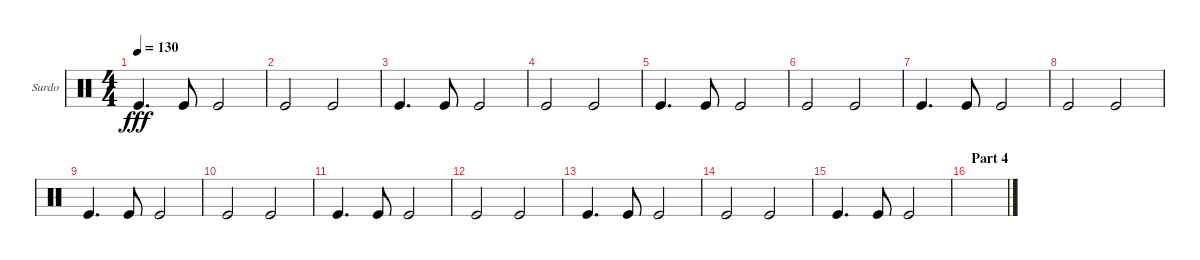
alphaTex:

\defaultSystemsLayout 4
\bracketExtendMode groupsimilarinstruments
\firstSystemTrackNameOrientation horizontal
\otherSystemsTrackNameOrientation horizontal
\track ("Surdo" "Surdo") {instrument percussion}
\staff {score}
\articulation defaults
\ts (4 4)
\tempo 130
\clef neutral
\scale
0.333333
\ks aminor "Kick (hit)".4{d dy fff} "Kick (hit)".8 "Kick (hit)".2
|
\scale
0.333333 "Kick (hit)".2 "Kick (hit)".2 |
\scale
0.333333 "Kick (hit)".4{d} "Kick (hit)".8 "Kick (hit)".2 |
\scale
0.333333 "Kick (hit)".2 "Kick (hit)".2 |
\scale
0.333333 "Kick (hit)".4{d} "Kick (hit)".8 "Kick (hit)".2 |
\scale
0.333333 "Kick (hit)".2 "Kick (hit)".2 |
\scale
0.333333 "Kick (hit)".4{d} "Kick (hit)".8 "Kick (hit)".2 |
\scale
0.333333 "Kick (hit)".2 "Kick (hit)".2 |
\scale
0.333333 "Kick (hit)".4{d} "Kick (hit)".8 "Kick (hit)".2 |
\scale
0.333333 "Kick (hit)".2 "Kick (hit)".2 |
\scale
0.333333 "Kick (hit)".4{d} "Kick (hit)".8 "Kick (hit)".2 |
\scale
0.333333 "Kick (hit)".2 "Kick (hit)".2 |
\scale
0.333333 "Kick (hit)".4{d} "Kick (hit)".8 "Kick (hit)".2 |
\scale
0.333333 "Kick (hit)".2 "Kick (hit)".2 |
\scale
0.333333 "Kick (hit)".4{d} "Kick (hit)".8 "Kick (hit)".2 |
\section ("" "Part 4")
\scale
0.333333
